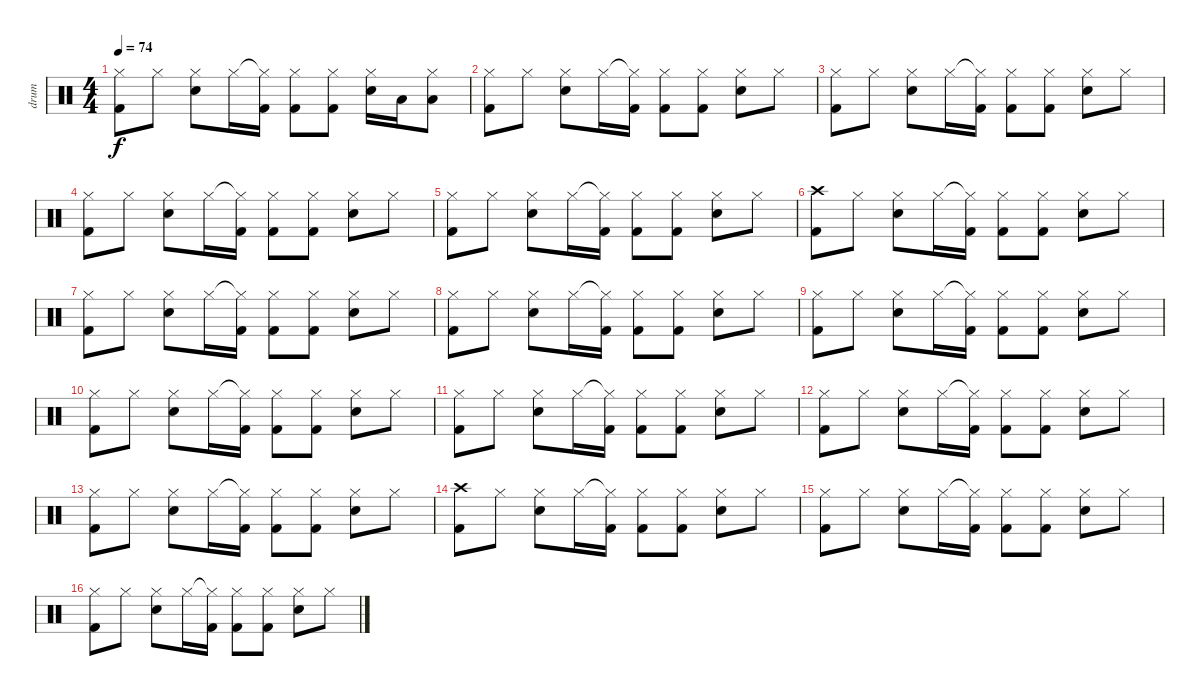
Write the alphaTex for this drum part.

\track ("drum" "drum") {instrument percussion}
\staff {score}
\articulation defaults
\ts (4 4)
\tempo 74
\clef neutral
\ks c
("Hi-Hat (closed)" "Kick (hit) 2").8{dy f} "Hi-Hat (closed)".8 ("Hi-Hat (closed)" "Electric Snare (hit)").8 "Hi-Hat (closed)".16 ("Hi-Hat (closed)"{t} "Kick (hit) 2").16 ("Hi-Hat (closed)" "Kick (hit) 2").8 ("Hi-Hat (closed)" "Kick (hit) 2").8 ("Hi-Hat (closed)" "Electric Snare (hit)").16 "Low Tom (hit)".16 ("Hi-Hat (closed)" "Low Tom (hit)").8 |
("Hi-Hat (closed)" "Kick (hit) 2").8 "Hi-Hat (closed)".8 ("Hi-Hat (closed)" "Electric Snare (hit)").8 "Hi-Hat (closed)".16 ("Hi-Hat (closed)"{t} "Kick (hit) 2").16 ("Hi-Hat (closed)" "Kick (hit) 2").8 ("Hi-Hat (closed)" "Kick (hit) 2").8 ("Hi-Hat (closed)" "Electric Snare (hit)").8 "Hi-Hat (closed)".8 |
("Hi-Hat (closed)" "Kick (hit) 2").8 "Hi-Hat (closed)".8 ("Hi-Hat (closed)" "Electric Snare (hit)").8 "Hi-Hat (closed)".16 ("Hi-Hat (closed)"{t} "Kick (hit) 2").16 ("Hi-Hat (closed)" "Kick (hit) 2").8 ("Hi-Hat (closed)" "Kick (hit) 2").8 ("Hi-Hat (closed)" "Electric Snare (hit)").8 "Hi-Hat (closed)".8 |
("Hi-Hat (closed)" "Kick (hit) 2").8 "Hi-Hat (closed)".8 ("Hi-Hat (closed)" "Electric Snare (hit)").8 "Hi-Hat (closed)".16 ("Hi-Hat (closed)"{t} "Kick (hit) 2").16 ("Hi-Hat (closed)" "Kick (hit) 2").8 ("Hi-Hat (closed)" "Kick (hit) 2").8 ("Hi-Hat (closed)" "Electric Snare (hit)").8 "Hi-Hat (closed)".8 |
("Hi-Hat (closed)" "Kick (hit) 2").8 "Hi-Hat (closed)".8 ("Hi-Hat (closed)" "Electric Snare (hit)").8 "Hi-Hat (closed)".16 ("Hi-Hat (closed)"{t} "Kick (hit) 2").16 ("Hi-Hat (closed)" "Kick (hit) 2").8 ("Hi-Hat (closed)" "Kick (hit) 2").8 ("Hi-Hat (closed)" "Electric Snare (hit)").8 "Hi-Hat (closed)".8 |
("Crash high (hit)" "Kick (hit) 2").8 "Hi-Hat (closed)".8 ("Hi-Hat (closed)" "Electric Snare (hit)").8 "Hi-Hat (closed)".16 ("Hi-Hat (closed)"{t} "Kick (hit) 2").16 ("Hi-Hat (closed)" "Kick (hit) 2").8 ("Hi-Hat (closed)" "Kick (hit) 2").8 ("Hi-Hat (closed)" "Electric Snare (hit)").8 "Hi-Hat (closed)".8 |
("Hi-Hat (closed)" "Kick (hit) 2").8 "Hi-Hat (closed)".8 ("Hi-Hat (closed)" "Electric Snare (hit)").8 "Hi-Hat (closed)".16 ("Hi-Hat (closed)"{t} "Kick (hit) 2").16 ("Hi-Hat (closed)" "Kick (hit) 2").8 ("Hi-Hat (closed)" "Kick (hit) 2").8 ("Hi-Hat (closed)" "Electric Snare (hit)").8 "Hi-Hat (closed)".8 |
("Hi-Hat (closed)" "Kick (hit) 2").8 "Hi-Hat (closed)".8 ("Hi-Hat (closed)" "Electric Snare (hit)").8 "Hi-Hat (closed)".16 ("Hi-Hat (closed)"{t} "Kick (hit) 2").16 ("Hi-Hat (closed)" "Kick (hit) 2").8 ("Hi-Hat (closed)" "Kick (hit) 2").8 ("Hi-Hat (closed)" "Electric Snare (hit)").8 "Hi-Hat (closed)".8 |
("Hi-Hat (closed)" "Kick (hit) 2").8 "Hi-Hat (closed)".8 ("Hi-Hat (closed)" "Electric Snare (hit)").8 "Hi-Hat (closed)".16 ("Hi-Hat (closed)"{t} "Kick (hit) 2").16 ("Hi-Hat (closed)" "Kick (hit) 2").8 ("Hi-Hat (closed)" "Kick (hit) 2").8 ("Hi-Hat (closed)" "Electric Snare (hit)").8 "Hi-Hat (closed)".8 |
("Hi-Hat (closed)" "Kick (hit) 2").8 "Hi-Hat (closed)".8 ("Hi-Hat (closed)" "Electric Snare (hit)").8 "Hi-Hat (closed)".16 ("Hi-Hat (closed)"{t} "Kick (hit) 2").16 ("Hi-Hat (closed)" "Kick (hit) 2").8 ("Hi-Hat (closed)" "Kick (hit) 2").8 ("Hi-Hat (closed)" "Electric Snare (hit)").8 "Hi-Hat (closed)".8 |
("Hi-Hat (closed)" "Kick (hit) 2").8 "Hi-Hat (closed)".8 ("Hi-Hat (closed)" "Electric Snare (hit)").8 "Hi-Hat (closed)".16 ("Hi-Hat (closed)"{t} "Kick (hit) 2").16 ("Hi-Hat (closed)" "Kick (hit) 2").8 ("Hi-Hat (closed)" "Kick (hit) 2").8 ("Hi-Hat (closed)" "Electric Snare (hit)").8 "Hi-Hat (closed)".8 |
("Hi-Hat (closed)" "Kick (hit) 2").8 "Hi-Hat (closed)".8 ("Hi-Hat (closed)" "Electric Snare (hit)").8 "Hi-Hat (closed)".16 ("Hi-Hat (closed)"{t} "Kick (hit) 2").16 ("Hi-Hat (closed)" "Kick (hit) 2").8 ("Hi-Hat (closed)" "Kick (hit) 2").8 ("Hi-Hat (closed)" "Electric Snare (hit)").8 "Hi-Hat (closed)".8 |
("Hi-Hat (closed)" "Kick (hit) 2").8 "Hi-Hat (closed)".8 ("Hi-Hat (closed)" "Electric Snare (hit)").8 "Hi-Hat (closed)".16 ("Hi-Hat (closed)"{t} "Kick (hit) 2").16 ("Hi-Hat (closed)" "Kick (hit) 2").8 ("Hi-Hat (closed)" "Kick (hit) 2").8 ("Hi-Hat (closed)" "Electric Snare (hit)").8 "Hi-Hat (closed)".8 |
("Crash high (hit)" "Kick (hit) 2").8 "Hi-Hat (closed)".8 ("Hi-Hat (closed)" "Electric Snare (hit)").8 "Hi-Hat (closed)".16 ("Hi-Hat (closed)"{t} "Kick (hit) 2").16 ("Hi-Hat (closed)" "Kick (hit) 2").8 ("Hi-Hat (closed)" "Kick (hit) 2").8 ("Hi-Hat (closed)" "Electric Snare (hit)").8 "Hi-Hat (closed)".8 |
("Hi-Hat (closed)" "Kick (hit) 2").8 "Hi-Hat (closed)".8 ("Hi-Hat (closed)" "Electric Snare (hit)").8 "Hi-Hat (closed)".16 ("Hi-Hat (closed)"{t} "Kick (hit) 2").16 ("Hi-Hat (closed)" "Kick (hit) 2").8 ("Hi-Hat (closed)" "Kick (hit) 2").8 ("Hi-Hat (closed)" "Electric Snare (hit)").8 "Hi-Hat (closed)".8 |
("Hi-Hat (closed)" "Kick (hit) 2").8 "Hi-Hat (closed)".8 ("Hi-Hat (closed)" "Electric Snare (hit)").8 "Hi-Hat (closed)".16 ("Hi-Hat (closed)"{t} "Kick (hit) 2").16 ("Hi-Hat (closed)" "Kick (hit) 2").8 ("Hi-Hat (closed)" "Kick (hit) 2").8 ("Hi-Hat (closed)" "Electric Snare (hit)").8 "Hi-Hat (closed)".8
